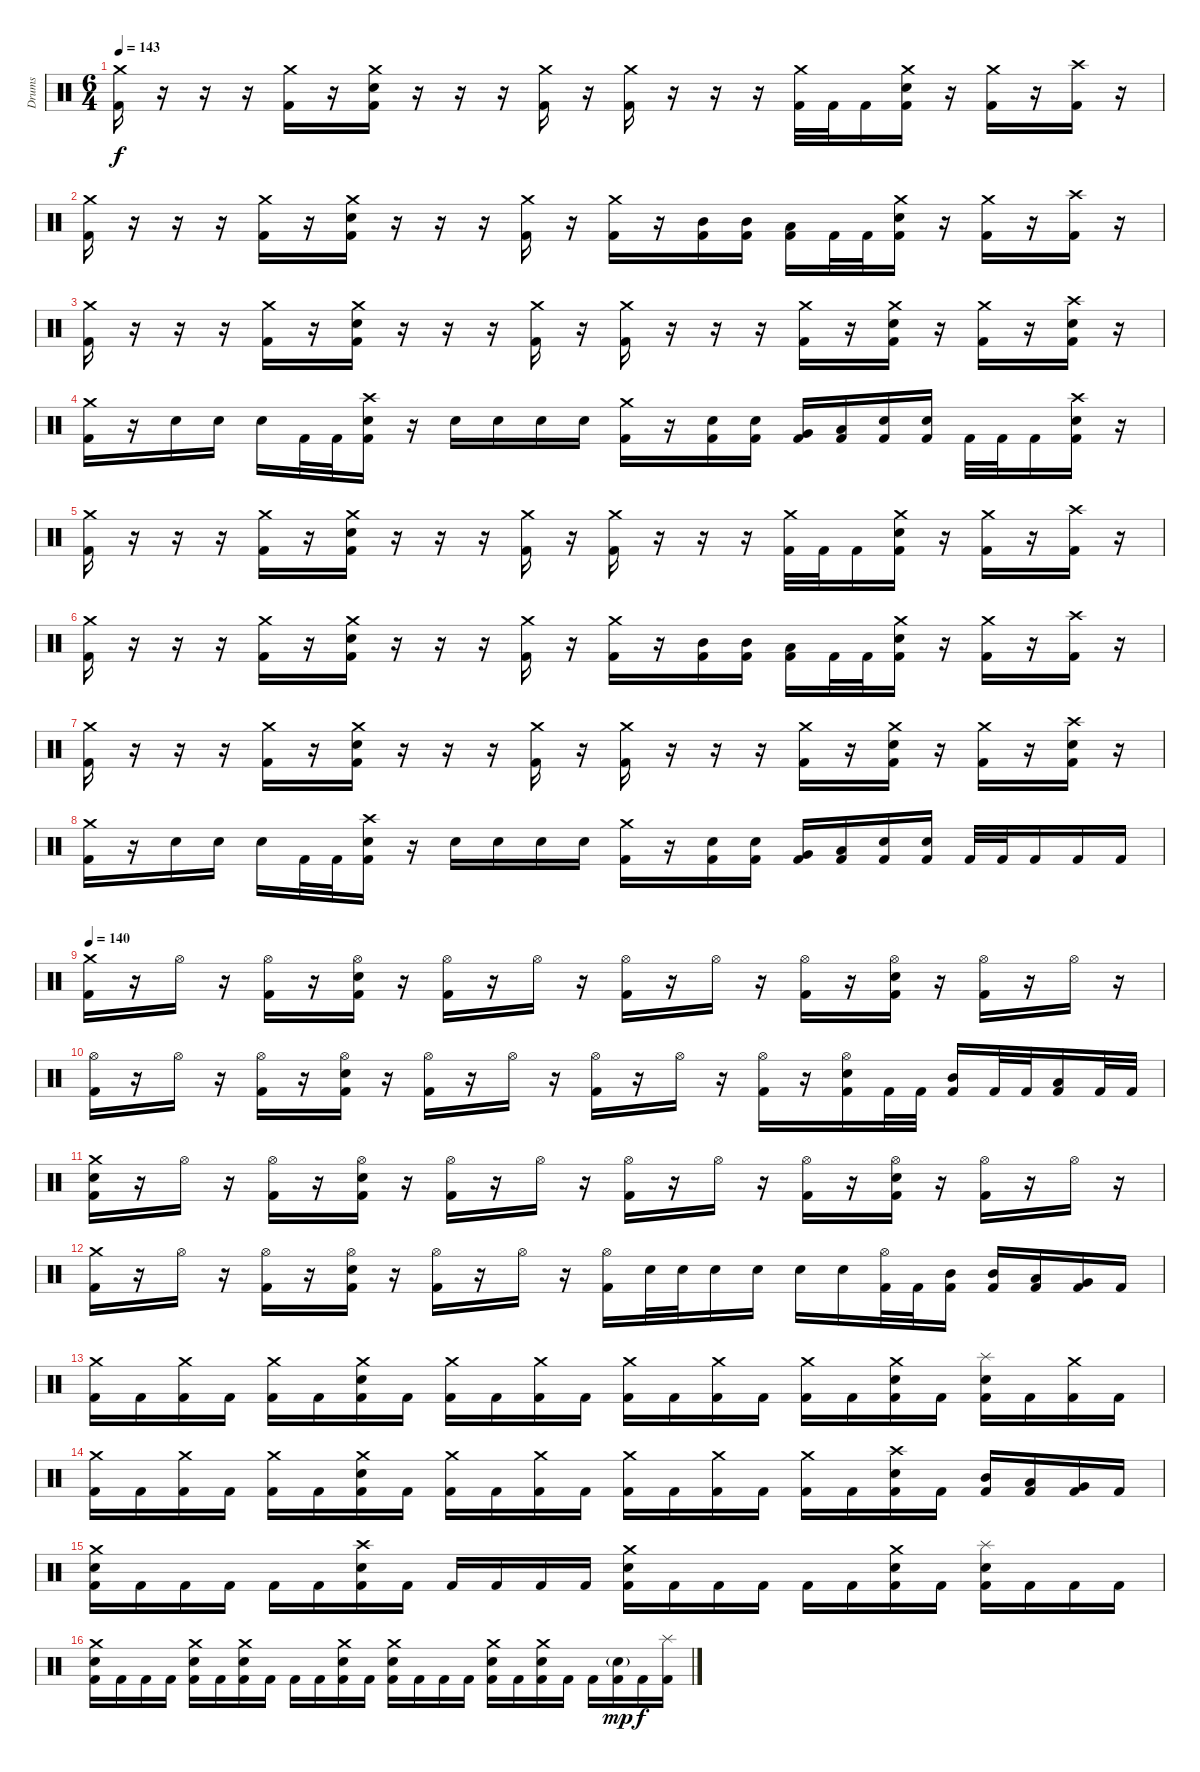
\track ("Drums" "Drums") {instrument percussion}
\staff {score}
\articulation defaults
\ts (6 4)
\section ("" "")
\tempo 143
\clef neutral
\ks c
("Crash medium (hit)" "Kick (hit) 2").16{dy f} r.16 r.16 r.16 ("Crash medium (hit)" "Kick (hit) 2").16 r.16 ("Crash medium (hit)" "Electric Snare (hit)" "Kick (hit) 2").16 r.16 r.16 r.16 ("Crash medium (hit)" "Kick (hit) 2").16 r.16 ("Crash medium (hit)" "Kick (hit) 2").16 r.16 r.16 r.16 ("Crash medium (hit)" "Kick (hit) 2").32 "Kick (hit) 2".32 "Kick (hit) 2".16 ("Crash medium (hit)" "Electric Snare (hit)" "Kick (hit) 2").16 r.16 ("Crash medium (hit)" "Kick (hit) 2").16 r.16 ("Crash high (hit)" "Kick (hit) 2").16 r.16 |
("Crash medium (hit)" "Kick (hit) 2").16 r.16 r.16 r.16 ("Crash medium (hit)" "Kick (hit) 2").16 r.16 ("Crash medium (hit)" "Electric Snare (hit)" "Kick (hit) 2").16 r.16 r.16 r.16 ("Crash medium (hit)" "Kick (hit) 2").16 r.16 ("Crash medium (hit)" "Kick (hit) 2").16 r.16 ("Mid Tom (hit)" "Kick (hit) 2").16 ("Mid Tom (hit)" "Kick (hit) 2").16 ("Low Tom (hit)" "Kick (hit) 2").16 "Kick (hit) 2".32 "Kick (hit) 2".32 ("Crash medium (hit)" "Electric Snare (hit)" "Kick (hit) 2").16 r.16 ("Crash medium (hit)" "Kick (hit) 2").16 r.16 ("Crash high (hit)" "Kick (hit) 2").16 r.16 |
("Crash medium (hit)" "Kick (hit) 2").16 r.16 r.16 r.16 ("Crash medium (hit)" "Kick (hit) 2").16 r.16 ("Crash medium (hit)" "Electric Snare (hit)" "Kick (hit) 2").16 r.16 r.16 r.16 ("Crash medium (hit)" "Kick (hit) 2").16 r.16 ("Crash medium (hit)" "Kick (hit) 2").16 r.16 r.16 r.16 ("Crash medium (hit)" "Kick (hit) 2").16 r.16 ("Crash medium (hit)" "Electric Snare (hit)" "Kick (hit) 2").16 r.16 ("Crash medium (hit)" "Kick (hit) 2").16 r.16 ("Crash high (hit)" "Electric Snare (hit)" "Kick (hit) 2").16 r.16 |
("Crash medium (hit)" "Kick (hit) 2").16 r.16 "Electric Snare (hit)".16 "Electric Snare (hit)".16 "Electric Snare (hit)".16 "Kick (hit) 2".32 "Kick (hit) 2".32 ("Crash high (hit)" "Electric Snare (hit)" "Kick (hit) 2").16 r.16 "Electric Snare (hit)".16 "Electric Snare (hit)".16 "Electric Snare (hit)".16 "Electric Snare (hit)".16 ("Crash medium (hit)" "Kick (hit) 2").16 r.16 ("Electric Snare (hit)" "Kick (hit) 2").16 ("Electric Snare (hit)" "Kick (hit) 2").16 ("Very Low Tom (hit)" "Kick (hit) 2").16 ("Low Tom (hit)" "Kick (hit) 2").16 ("Electric Snare (hit)" "Kick (hit) 2").16 ("Electric Snare (hit)" "Kick (hit) 2").16 "Kick (hit) 2".32 "Kick (hit) 2".32 "Kick (hit) 2".16 ("Crash high (hit)" "Electric Snare (hit)" "Kick (hit) 2").16 r.16 |
("Crash medium (hit)" "Kick (hit) 2").16 r.16 r.16 r.16 ("Crash medium (hit)" "Kick (hit) 2").16 r.16 ("Crash medium (hit)" "Electric Snare (hit)" "Kick (hit) 2").16 r.16 r.16 r.16 ("Crash medium (hit)" "Kick (hit) 2").16 r.16 ("Crash medium (hit)" "Kick (hit) 2").16 r.16 r.16 r.16 ("Crash medium (hit)" "Kick (hit) 2").32 "Kick (hit) 2".32 "Kick (hit) 2".16 ("Crash medium (hit)" "Electric Snare (hit)" "Kick (hit) 2").16 r.16 ("Crash medium (hit)" "Kick (hit) 2").16 r.16 ("Crash high (hit)" "Kick (hit) 2").16 r.16 |
("Crash medium (hit)" "Kick (hit) 2").16 r.16 r.16 r.16 ("Crash medium (hit)" "Kick (hit) 2").16 r.16 ("Crash medium (hit)" "Electric Snare (hit)" "Kick (hit) 2").16 r.16 r.16 r.16 ("Crash medium (hit)" "Kick (hit) 2").16 r.16 ("Crash medium (hit)" "Kick (hit) 2").16 r.16 ("Mid Tom (hit)" "Kick (hit) 2").16 ("Mid Tom (hit)" "Kick (hit) 2").16 ("Low Tom (hit)" "Kick (hit) 2").16 "Kick (hit) 2".32 "Kick (hit) 2".32 ("Crash medium (hit)" "Electric Snare (hit)" "Kick (hit) 2").16 r.16 ("Crash medium (hit)" "Kick (hit) 2").16 r.16 ("Crash high (hit)" "Kick (hit) 2").16 r.16 |
("Crash medium (hit)" "Kick (hit) 2").16 r.16 r.16 r.16 ("Crash medium (hit)" "Kick (hit) 2").16 r.16 ("Crash medium (hit)" "Electric Snare (hit)" "Kick (hit) 2").16 r.16 r.16 r.16 ("Crash medium (hit)" "Kick (hit) 2").16 r.16 ("Crash medium (hit)" "Kick (hit) 2").16 r.16 r.16 r.16 ("Crash medium (hit)" "Kick (hit) 2").16 r.16 ("Crash medium (hit)" "Electric Snare (hit)" "Kick (hit) 2").16 r.16 ("Crash medium (hit)" "Kick (hit) 2").16 r.16 ("Crash high (hit)" "Electric Snare (hit)" "Kick (hit) 2").16 r.16 |
("Crash medium (hit)" "Kick (hit) 2").16 r.16 "Electric Snare (hit)".16 "Electric Snare (hit)".16 "Electric Snare (hit)".16 "Kick (hit) 2".32 "Kick (hit) 2".32 ("Crash high (hit)" "Electric Snare (hit)" "Kick (hit) 2").16 r.16 "Electric Snare (hit)".16 "Electric Snare (hit)".16 "Electric Snare (hit)".16 "Electric Snare (hit)".16 ("Crash medium (hit)" "Kick (hit) 2").16 r.16 ("Electric Snare (hit)" "Kick (hit) 2").16 ("Electric Snare (hit)" "Kick (hit) 2").16 ("Very Low Tom (hit)" "Kick (hit) 2").16 ("Low Tom (hit)" "Kick (hit) 2").16 ("Electric Snare (hit)" "Kick (hit) 2").16 ("Electric Snare (hit)" "Kick (hit) 2").16 "Kick (hit) 2".32 "Kick (hit) 2".32 "Kick (hit) 2".16 "Kick (hit) 2".16 "Kick (hit) 2".16 |
\section ("" "")
\tempo 140
("Crash medium (hit)" "Kick (hit) 2").16 r.16 "Hi-Hat (open)".16 r.16 ("Hi-Hat (open)" "Kick (hit) 2").16 r.16 ("Hi-Hat (open)" "Electric Snare (hit)" "Kick (hit) 2").16 r.16 ("Hi-Hat (open)" "Kick (hit) 2").16 r.16 "Hi-Hat (open)".16 r.16 ("Hi-Hat (open)" "Kick (hit) 2").16 r.16 "Hi-Hat (open)".16 r.16 ("Hi-Hat (open)" "Kick (hit) 2").16 r.16 ("Hi-Hat (open)" "Electric Snare (hit)" "Kick (hit) 2").16 r.16 ("Hi-Hat (open)" "Kick (hit) 2").16 r.16 "Hi-Hat (open)".16 r.16 |
("Hi-Hat (open)" "Kick (hit) 2").16 r.16 "Hi-Hat (open)".16 r.16 ("Hi-Hat (open)" "Kick (hit) 2").16 r.16 ("Hi-Hat (open)" "Electric Snare (hit)" "Kick (hit) 2").16 r.16 ("Hi-Hat (open)" "Kick (hit) 2").16 r.16 "Hi-Hat (open)".16 r.16 ("Hi-Hat (open)" "Kick (hit) 2").16 r.16 "Hi-Hat (open)".16 r.16 ("Hi-Hat (open)" "Kick (hit) 2").16 r.16 ("Hi-Hat (open)" "Electric Snare (hit)" "Kick (hit) 2").16 "Kick (hit) 2".32 "Kick (hit) 2".32 ("Mid Tom (hit)" "Kick (hit) 2").16 "Kick (hit) 2".32 "Kick (hit) 2".32 ("Low Tom (hit)" "Kick (hit) 2").16 "Kick (hit) 2".32 "Kick (hit) 2".32 |
("Crash medium (hit)" "Electric Snare (hit)" "Kick (hit) 2").16 r.16 "Hi-Hat (open)".16 r.16 ("Hi-Hat (open)" "Kick (hit) 2").16 r.16 ("Hi-Hat (open)" "Electric Snare (hit)" "Kick (hit) 2").16 r.16 ("Hi-Hat (open)" "Kick (hit) 2").16 r.16 "Hi-Hat (open)".16 r.16 ("Hi-Hat (open)" "Kick (hit) 2").16 r.16 "Hi-Hat (open)".16 r.16 ("Hi-Hat (open)" "Kick (hit) 2").16 r.16 ("Hi-Hat (open)" "Electric Snare (hit)" "Kick (hit) 2").16 r.16 ("Hi-Hat (open)" "Kick (hit) 2").16 r.16 "Hi-Hat (open)".16 r.16 |
("Crash medium (hit)" "Kick (hit) 2").16 r.16 "Hi-Hat (open)".16 r.16 ("Hi-Hat (open)" "Kick (hit) 2").16 r.16 ("Hi-Hat (open)" "Electric Snare (hit)" "Kick (hit) 2").16 r.16 ("Hi-Hat (open)" "Kick (hit) 2").16 r.16 "Hi-Hat (open)".16 r.16 ("Hi-Hat (open)" "Kick (hit) 2").16 "Electric Snare (hit)".32 "Electric Snare (hit)".32 "Electric Snare (hit)".16 "Electric Snare (hit)".16 "Electric Snare (hit)".16 "Electric Snare (hit)".16 ("Hi-Hat (open)" "Kick (hit) 2").32 "Kick (hit) 2".32 ("Mid Tom (hit)" "Kick (hit) 2").16 ("Mid Tom (hit)" "Kick (hit) 2").16 ("Low Tom (hit)" "Kick (hit) 2").16 ("Very Low Tom (hit)" "Kick (hit) 2").16 "Kick (hit) 2".16 |
("Crash medium (hit)" "Kick (hit) 2").16 "Kick (hit) 2".16 ("Crash medium (hit)" "Kick (hit) 2").16 "Kick (hit) 2".16 ("Crash medium (hit)" "Kick (hit) 2").16 "Kick (hit) 2".16 ("Crash medium (hit)" "Electric Snare (hit)" "Kick (hit) 2").16 "Kick (hit) 2".16 ("Crash medium (hit)" "Kick (hit) 2").16 "Kick (hit) 2".16 ("Crash medium (hit)" "Kick (hit) 2").16 "Kick (hit) 2".16 ("Crash medium (hit)" "Kick (hit) 2").16 "Kick (hit) 2".16 ("Crash medium (hit)" "Kick (hit) 2").16 "Kick (hit) 2".16 ("Crash medium (hit)" "Kick (hit) 2").16 "Kick (hit) 2".16 ("Crash medium (hit)" "Electric Snare (hit)" "Kick (hit) 2").16 "Kick (hit) 2".16 ("Splash (hit)" "Electric Snare (hit)" "Kick (hit) 2").16 "Kick (hit) 2".16 ("Crash medium (hit)" "Kick (hit) 2").16 "Kick (hit) 2".16 |
("Crash medium (hit)" "Kick (hit) 2").16 "Kick (hit) 2".16 ("Crash medium (hit)" "Kick (hit) 2").16 "Kick (hit) 2".16 ("Crash medium (hit)" "Kick (hit) 2").16 "Kick (hit) 2".16 ("Crash medium (hit)" "Electric Snare (hit)" "Kick (hit) 2").16 "Kick (hit) 2".16 ("Crash medium (hit)" "Kick (hit) 2").16 "Kick (hit) 2".16 ("Crash medium (hit)" "Kick (hit) 2").16 "Kick (hit) 2".16 ("Crash medium (hit)" "Kick (hit) 2").16 "Kick (hit) 2".16 ("Crash medium (hit)" "Kick (hit) 2").16 "Kick (hit) 2".16 ("Crash medium (hit)" "Kick (hit) 2").16 "Kick (hit) 2".16 ("Crash high (hit)" "Electric Snare (hit)" "Kick (hit) 2").16 "Kick (hit) 2".16 ("Mid Tom (hit)" "Kick (hit) 2").16 ("Low Tom (hit)" "Kick (hit) 2").16 ("Very Low Tom (hit)" "Kick (hit) 2").16 "Kick (hit) 2".16 |
("Crash medium (hit)" "Electric Snare (hit)" "Kick (hit) 2").16 "Kick (hit) 2".16 "Kick (hit) 2".16 "Kick (hit) 2".16 "Kick (hit) 2".16 "Kick (hit) 2".16 ("Crash high (hit)" "Electric Snare (hit)" "Kick (hit) 2").16 "Kick (hit) 2".16 "Kick (hit) 2".16 "Kick (hit) 2".16 "Kick (hit) 2".16 "Kick (hit) 2".16 ("Crash medium (hit)" "Electric Snare (hit)" "Kick (hit) 2").16 "Kick (hit) 2".16 "Kick (hit) 2".16 "Kick (hit) 2".16 "Kick (hit) 2".16 "Kick (hit) 2".16 ("Crash medium (hit)" "Electric Snare (hit)" "Kick (hit) 2").16 "Kick (hit) 2".16 ("Splash (hit)" "Electric Snare (hit)" "Kick (hit) 2").16 "Kick (hit) 2".16 "Kick (hit) 2".16 "Kick (hit) 2".16 |
("Crash medium (hit)" "Electric Snare (hit)" "Kick (hit) 2").16 "Kick (hit) 2".16 "Kick (hit) 2".16 "Kick (hit) 2".16 ("Crash medium (hit)" "Electric Snare (hit)" "Kick (hit) 2").16 "Kick (hit) 2".16 ("Crash medium (hit)" "Electric Snare (hit)" "Kick (hit) 2").16 "Kick (hit) 2".16 "Kick (hit) 2".16 "Kick (hit) 2".16 ("Crash medium (hit)" "Electric Snare (hit)" "Kick (hit) 2").16 "Kick (hit) 2".16 ("Crash medium (hit)" "Electric Snare (hit)" "Kick (hit) 2").16 "Kick (hit) 2".16 "Kick (hit) 2".16 "Kick (hit) 2".16 ("Crash medium (hit)" "Electric Snare (hit)" "Kick (hit) 2").16 "Kick (hit) 2".16 ("Crash medium (hit)" "Electric Snare (hit)" "Kick (hit) 2").16 "Kick (hit) 2".16 "Kick (hit) 2".16 ("Electric Snare (hit)"{g} "Kick (hit) 2").16{dy mp} "Kick (hit) 2".16{dy f} ("Splash (hit)" "Kick (hit) 2").16
